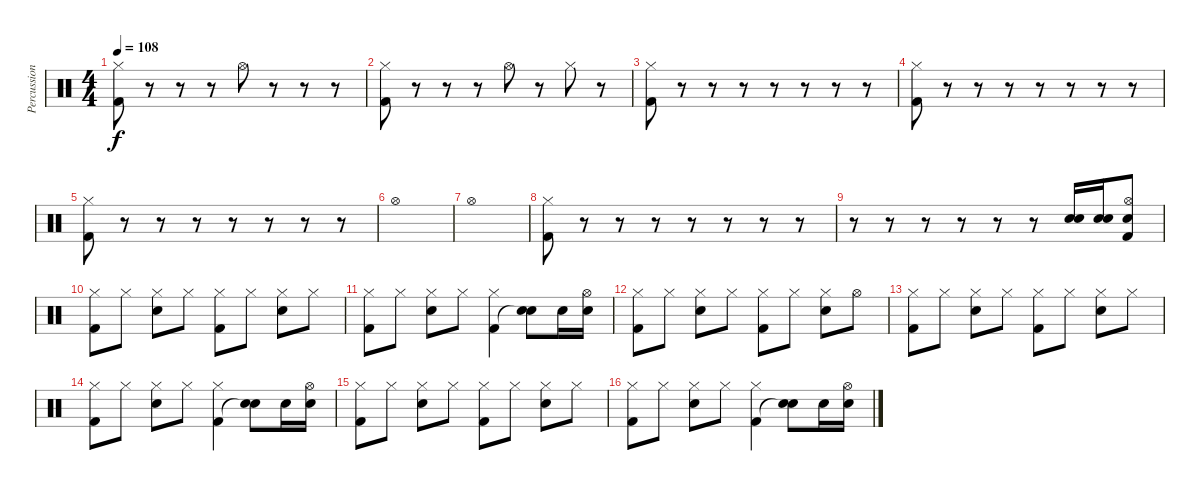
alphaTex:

\track ("Percussion" "Percussion") {instrument percussion}
\staff {score}
\articulation defaults
\ts (4 4)
\tempo 108
\clef neutral
\ks c
("Hi-Hat (closed)" "Kick (hit) 2").8{dy f} r.8 r.8 r.8 "Hi-Hat (open)".8 r.8 r.8 r.8 |
("Hi-Hat (closed)" "Kick (hit) 2").8 r.8 r.8 r.8 "Hi-Hat (open)".8 r.8 "Hi-Hat (closed)".8 r.8 |
("Hi-Hat (closed)" "Kick (hit) 2").8 r.8 r.8 r.8 r.8 r.8 r.8 r.8 |
("Hi-Hat (closed)" "Kick (hit) 2").8 r.8 r.8 r.8 r.8 r.8 r.8 r.8 |
("Hi-Hat (closed)" "Kick (hit) 2").8 r.8 r.8 r.8 r.8 r.8 r.8 r.8 |
"Hi-Hat (open)".1 |
"Hi-Hat (open)".1 |
("Hi-Hat (closed)" "Kick (hit) 2").8 r.8 r.8 r.8 r.8 r.8 r.8 r.8 |
r.8 r.8 r.8 r.8 r.8 r.8 ("Snare (hit) 2" "Snare (hit) 2").16 ("Snare (hit) 2" "Snare (hit) 2").16 ("Hi-Hat (open)" "Snare (hit) 2" "Kick (hit) 2").8 |
("Hi-Hat (closed)" "Kick (hit) 2").8 "Hi-Hat (closed)".8 ("Hi-Hat (closed)" "Snare (hit) 2").8 "Hi-Hat (closed)".8 ("Hi-Hat (closed)" "Kick (hit) 2").8 "Hi-Hat (closed)".8 ("Hi-Hat (closed)" "Snare (hit) 2").8 "Hi-Hat (closed)".8 |
("Hi-Hat (closed)" "Kick (hit) 2").8 "Hi-Hat (closed)".8 ("Hi-Hat (closed)" "Snare (hit) 2").8 "Hi-Hat (closed)".8 ("Hi-Hat (closed)" "Kick (hit) 2").4 ("Snare (hit) 2" "Snare (hit)"{t}).8 "Snare (hit) 2".16 ("Hi-Hat (open)" "Snare (hit) 2").16 |
("Hi-Hat (closed)" "Kick (hit) 2").8 "Hi-Hat (closed)".8 ("Hi-Hat (closed)" "Snare (hit) 2").8 "Hi-Hat (closed)".8 ("Hi-Hat (closed)" "Kick (hit) 2").8 "Hi-Hat (closed)".8 ("Hi-Hat (closed)" "Snare (hit) 2").8 "Hi-Hat (open)".8 |
("Hi-Hat (closed)" "Kick (hit) 2").8 "Hi-Hat (closed)".8 ("Hi-Hat (closed)" "Snare (hit) 2").8 "Hi-Hat (closed)".8 ("Hi-Hat (closed)" "Kick (hit) 2").8 "Hi-Hat (closed)".8 ("Hi-Hat (closed)" "Snare (hit) 2").8 "Hi-Hat (closed)".8 |
("Hi-Hat (closed)" "Kick (hit) 2").8 "Hi-Hat (closed)".8 ("Hi-Hat (closed)" "Snare (hit) 2").8 "Hi-Hat (closed)".8 ("Hi-Hat (closed)" "Kick (hit) 2").4 ("Snare (hit) 2" "Snare (hit)"{t}).8 "Snare (hit) 2".16 ("Hi-Hat (open)" "Snare (hit) 2").16 |
("Hi-Hat (closed)" "Kick (hit) 2").8 "Hi-Hat (closed)".8 ("Hi-Hat (closed)" "Snare (hit) 2").8 "Hi-Hat (closed)".8 ("Hi-Hat (closed)" "Kick (hit) 2").8 "Hi-Hat (closed)".8 ("Hi-Hat (closed)" "Snare (hit) 2").8 "Hi-Hat (closed)".8 |
("Hi-Hat (closed)" "Kick (hit) 2").8 "Hi-Hat (closed)".8 ("Hi-Hat (closed)" "Snare (hit) 2").8 "Hi-Hat (closed)".8 ("Hi-Hat (closed)" "Kick (hit) 2").4 ("Snare (hit) 2" "Snare (hit)"{t}).8 "Snare (hit) 2".16 ("Hi-Hat (open)" "Snare (hit) 2").16
